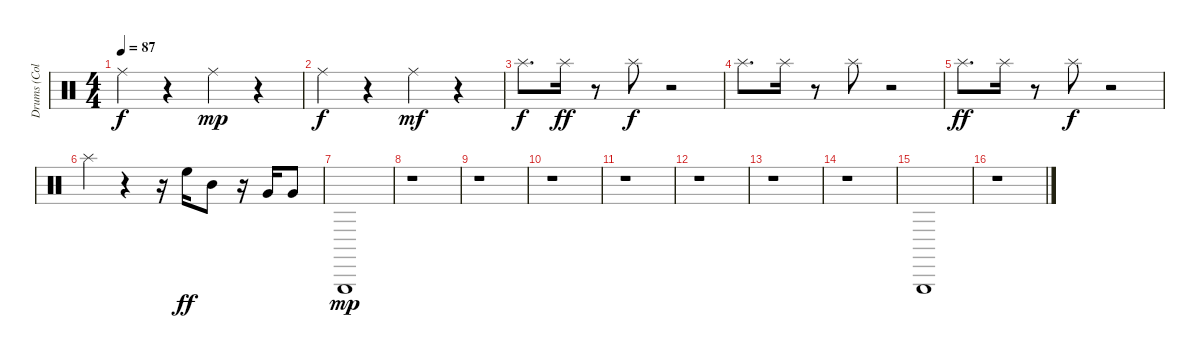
\track ("Drums (Collins)" "Drums (Col") {instrument percussion}
\staff {score}
\articulation defaults
\ts (4 4)
\tempo 87
\clef neutral
\ks c "Ride (middle)".4{dy f}
r.4 "Ride (middle)".4{dy mp} r.4 |
"Ride (middle)".4{dy f} r.4 "Ride (middle)".4{dy mf} r.4 |
"Splash (hit)".8{d dy f} "Splash (hit)".16{dy ff} r.8 "Splash (hit)".8{dy f} r.2 |
"Splash (hit)".8{d} "Splash (hit)".16 r.8 "Splash (hit)".8 r.2 |
"Splash (hit)".8{d dy ff} "Splash (hit)".16 r.8 "Splash (hit)".8{dy f} r.2 |
"Splash (hit)".4 r.4 r.16 "High Floor Tom (hit)".16{dy ff} "Mid Tom (hit)".8 r.16 "Very Low Tom (hit)".16 "Very Low Tom (hit)".8 |
"Triangle (hit)".1{dy mp} |
r.1 |
r.1 |
r.1 |
r.1 |
r.1 |
r.1 |
r.1 |
"Triangle (hit)".1 |
r.1
